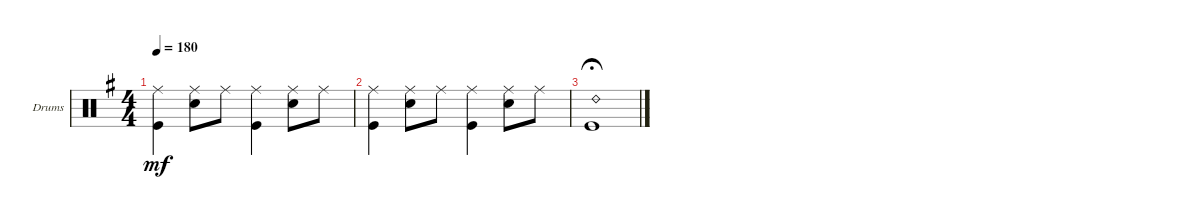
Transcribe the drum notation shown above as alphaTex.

\defaultSystemsLayout 4
\bracketExtendMode groupsimilarinstruments
\firstSystemTrackNameOrientation horizontal
\otherSystemsTrackNameOrientation horizontal
\track ("Drums Ringo" "Drums") {instrument percussion}
\staff {score}
\articulation defaults
\ts (4 4)
\tempo 180
\clef neutral
\ks g
("Ride (middle)" "Kick (hit)").4{dy mf} ("Snare (hit) 2" "Ride (middle)").8 "Ride (middle)".8 ("Ride (middle)" "Kick (hit)").4 ("Snare (hit) 2" "Ride (middle)").8 "Ride (middle)".8 |
("Ride (middle)" "Kick (hit)").4 ("Snare (hit) 2" "Ride (middle)").8 "Ride (middle)".8 ("Ride (middle)" "Kick (hit)").4 ("Snare (hit) 2" "Ride (middle)").8 "Ride (middle)".8 |
("Ride (bell) 2" "Kick (hit)").1{fermata (medium 0.5)}
